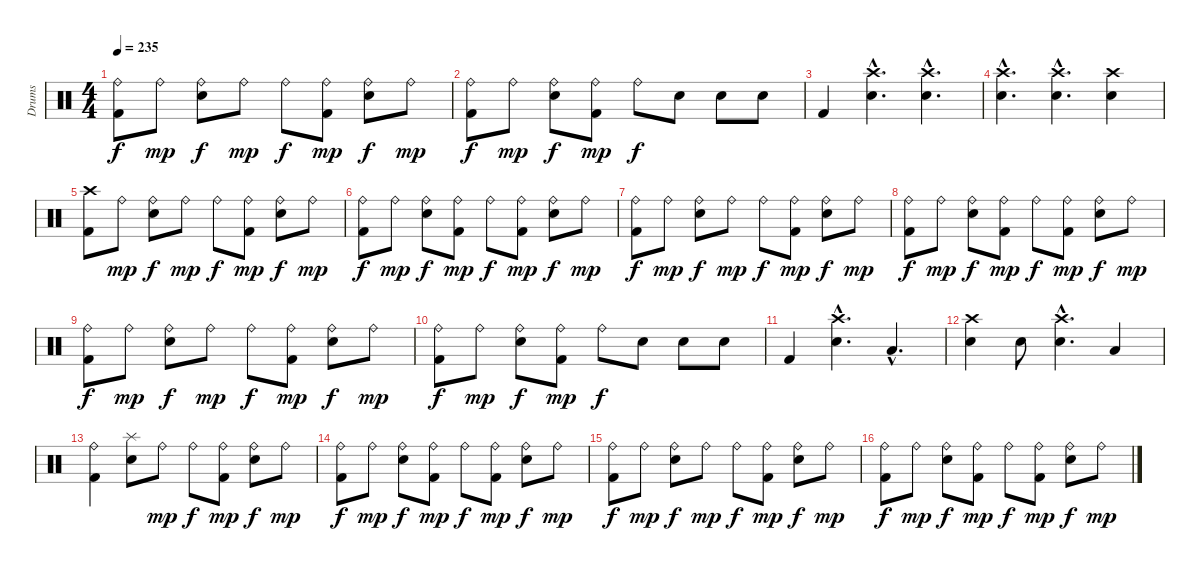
\track ("Drums" "Drums") {instrument percussion}
\staff {score}
\articulation defaults
\ts (4 4)
\tempo 235
\clef neutral
\ks c
("Ride (bell)" "Kick (hit) 2").8{dy f} "Ride (bell)".8{dy mp} ("Ride (bell)" "Snare (hit) 2").8{dy f} "Ride (bell)".8{dy mp} "Ride (bell)".8{dy f} ("Ride (bell)" "Kick (hit) 2").8{dy mp} ("Ride (bell)" "Snare (hit) 2").8{dy f} "Ride (bell)".8{dy mp} |
("Ride (bell)" "Kick (hit) 2").8{dy f} "Ride (bell)".8{dy mp} ("Ride (bell)" "Snare (hit) 2").8{dy f} ("Ride (bell)" "Kick (hit) 2").8{dy mp} "Ride (bell)".8{dy f} "Snare (hit) 2".8 "Snare (hit) 2".8 "Snare (hit) 2".8 |
"Kick (hit) 2".4 ("Crash high (hit)"{hac} "Snare (hit) 2"{hac}).4{d} ("Crash high (hit)"{hac} "Snare (hit) 2"{hac}).4{d} |
("Crash high (hit)"{hac} "Snare (hit) 2"{hac}).4{d} ("Crash high (hit)"{hac} "Snare (hit) 2"{hac}).4{d} ("Crash high (hit)" "Snare (hit) 2").4 |
("Crash high (hit)" "Kick (hit) 2").8 "Ride (bell)".8{dy mp} ("Ride (bell)" "Snare (hit) 2").8{dy f} "Ride (bell)".8{dy mp} "Ride (bell)".8{dy f} ("Ride (bell)" "Kick (hit) 2").8{dy mp} ("Ride (bell)" "Snare (hit) 2").8{dy f} "Ride (bell)".8{dy mp} |
("Ride (bell)" "Kick (hit) 2").8{dy f} "Ride (bell)".8{dy mp} ("Ride (bell)" "Snare (hit) 2").8{dy f} ("Ride (bell)" "Kick (hit) 2").8{dy mp} "Ride (bell)".8{dy f} ("Ride (bell)" "Kick (hit) 2").8{dy mp} ("Ride (bell)" "Snare (hit) 2").8{dy f} "Ride (bell)".8{dy mp} |
("Ride (bell)" "Kick (hit) 2").8{dy f} "Ride (bell)".8{dy mp} ("Ride (bell)" "Snare (hit) 2").8{dy f} "Ride (bell)".8{dy mp} "Ride (bell)".8{dy f} ("Ride (bell)" "Kick (hit) 2").8{dy mp} ("Ride (bell)" "Snare (hit) 2").8{dy f} "Ride (bell)".8{dy mp} |
("Ride (bell)" "Kick (hit) 2").8{dy f} "Ride (bell)".8{dy mp} ("Ride (bell)" "Snare (hit) 2").8{dy f} ("Ride (bell)" "Kick (hit) 2").8{dy mp} "Ride (bell)".8{dy f} ("Ride (bell)" "Kick (hit) 2").8{dy mp} ("Ride (bell)" "Snare (hit) 2").8{dy f} "Ride (bell)".8{dy mp} |
("Ride (bell)" "Kick (hit) 2").8{dy f} "Ride (bell)".8{dy mp} ("Ride (bell)" "Snare (hit) 2").8{dy f} "Ride (bell)".8{dy mp} "Ride (bell)".8{dy f} ("Ride (bell)" "Kick (hit) 2").8{dy mp} ("Ride (bell)" "Snare (hit) 2").8{dy f} "Ride (bell)".8{dy mp} |
("Ride (bell)" "Kick (hit) 2").8{dy f} "Ride (bell)".8{dy mp} ("Ride (bell)" "Snare (hit) 2").8{dy f} ("Ride (bell)" "Kick (hit) 2").8{dy mp} "Ride (bell)".8{dy f} "Snare (hit) 2".8 "Snare (hit) 2".8 "Snare (hit) 2".8 |
"Kick (hit) 2".4 ("Crash high (hit)"{hac} "Snare (hit) 2"{hac}).4{d} "Low Tom (hit)"{hac}.4{d} |
("Crash high (hit)" "Snare (hit) 2").4 "Snare (hit) 2".8 ("Crash high (hit)"{hac} "Snare (hit) 2"{hac}).4{d} "Low Tom (hit)".4 |
("Ride (bell)" "Kick (hit) 2").4 ("Splash (hit)" "Snare (hit) 2").8 "Ride (bell)".8{dy mp} "Ride (bell)".8{dy f} ("Ride (bell)" "Kick (hit) 2").8{dy mp} ("Ride (bell)" "Snare (hit) 2").8{dy f} "Ride (bell)".8{dy mp} |
("Ride (bell)" "Kick (hit) 2").8{dy f} "Ride (bell)".8{dy mp} ("Ride (bell)" "Snare (hit) 2").8{dy f} ("Ride (bell)" "Kick (hit) 2").8{dy mp} "Ride (bell)".8{dy f} ("Ride (bell)" "Kick (hit) 2").8{dy mp} ("Ride (bell)" "Snare (hit) 2").8{dy f} "Ride (bell)".8{dy mp} |
("Ride (bell)" "Kick (hit) 2").8{dy f} "Ride (bell)".8{dy mp} ("Ride (bell)" "Snare (hit) 2").8{dy f} "Ride (bell)".8{dy mp} "Ride (bell)".8{dy f} ("Ride (bell)" "Kick (hit) 2").8{dy mp} ("Ride (bell)" "Snare (hit) 2").8{dy f} "Ride (bell)".8{dy mp} |
("Ride (bell)" "Kick (hit) 2").8{dy f} "Ride (bell)".8{dy mp} ("Ride (bell)" "Snare (hit) 2").8{dy f} ("Ride (bell)" "Kick (hit) 2").8{dy mp} "Ride (bell)".8{dy f} ("Ride (bell)" "Kick (hit) 2").8{dy mp} ("Ride (bell)" "Snare (hit) 2").8{dy f} "Ride (bell)".8{dy mp}
